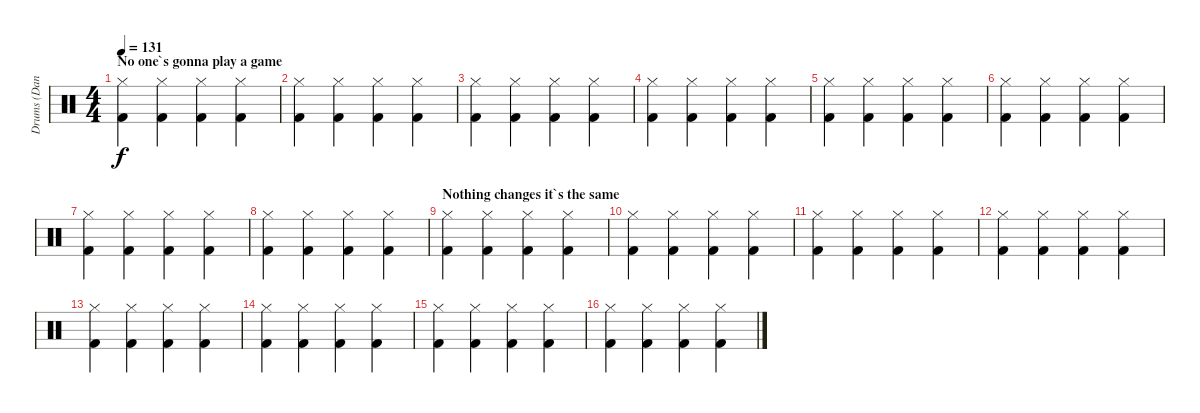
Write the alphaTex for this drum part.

\track ("Drums (Danny Young)" "Drums (Dan") {instrument percussion}
\staff {score}
\articulation defaults
\ts (4 4)
\section ("" "No one`s gonna play a game")
\tempo 131
\clef neutral
\ks c
("Hi-Hat (closed)" "Kick (hit) 2").4{dy f} ("Hi-Hat (closed)" "Kick (hit) 2").4 ("Hi-Hat (closed)" "Kick (hit) 2").4 ("Hi-Hat (closed)" "Kick (hit) 2").4 |
("Hi-Hat (closed)" "Kick (hit) 2").4 ("Hi-Hat (closed)" "Kick (hit) 2").4 ("Hi-Hat (closed)" "Kick (hit) 2").4 ("Hi-Hat (closed)" "Kick (hit) 2").4 |
("Hi-Hat (closed)" "Kick (hit) 2").4 ("Hi-Hat (closed)" "Kick (hit) 2").4 ("Hi-Hat (closed)" "Kick (hit) 2").4 ("Hi-Hat (closed)" "Kick (hit) 2").4 |
("Hi-Hat (closed)" "Kick (hit) 2").4 ("Hi-Hat (closed)" "Kick (hit) 2").4 ("Hi-Hat (closed)" "Kick (hit) 2").4 ("Hi-Hat (closed)" "Kick (hit) 2").4 |
("Hi-Hat (closed)" "Kick (hit) 2").4 ("Hi-Hat (closed)" "Kick (hit) 2").4 ("Hi-Hat (closed)" "Kick (hit) 2").4 ("Hi-Hat (closed)" "Kick (hit) 2").4 |
("Hi-Hat (closed)" "Kick (hit) 2").4 ("Hi-Hat (closed)" "Kick (hit) 2").4 ("Hi-Hat (closed)" "Kick (hit) 2").4 ("Hi-Hat (closed)" "Kick (hit) 2").4 |
("Hi-Hat (closed)" "Kick (hit) 2").4 ("Hi-Hat (closed)" "Kick (hit) 2").4 ("Hi-Hat (closed)" "Kick (hit) 2").4 ("Hi-Hat (closed)" "Kick (hit) 2").4 |
("Hi-Hat (closed)" "Kick (hit) 2").4 ("Hi-Hat (closed)" "Kick (hit) 2").4 ("Hi-Hat (closed)" "Kick (hit) 2").4 ("Hi-Hat (closed)" "Kick (hit) 2").4 |
\section ("" "Nothing changes it`s the same")
("Hi-Hat (closed)" "Kick (hit) 2").4 ("Hi-Hat (closed)" "Kick (hit) 2").4 ("Hi-Hat (closed)" "Kick (hit) 2").4 ("Hi-Hat (closed)" "Kick (hit) 2").4 |
("Hi-Hat (closed)" "Kick (hit) 2").4 ("Hi-Hat (closed)" "Kick (hit) 2").4 ("Hi-Hat (closed)" "Kick (hit) 2").4 ("Hi-Hat (closed)" "Kick (hit) 2").4 |
("Hi-Hat (closed)" "Kick (hit) 2").4 ("Hi-Hat (closed)" "Kick (hit) 2").4 ("Hi-Hat (closed)" "Kick (hit) 2").4 ("Hi-Hat (closed)" "Kick (hit) 2").4 |
("Hi-Hat (closed)" "Kick (hit) 2").4 ("Hi-Hat (closed)" "Kick (hit) 2").4 ("Hi-Hat (closed)" "Kick (hit) 2").4 ("Hi-Hat (closed)" "Kick (hit) 2").4 |
("Hi-Hat (closed)" "Kick (hit) 2").4 ("Hi-Hat (closed)" "Kick (hit) 2").4 ("Hi-Hat (closed)" "Kick (hit) 2").4 ("Hi-Hat (closed)" "Kick (hit) 2").4 |
("Hi-Hat (closed)" "Kick (hit) 2").4 ("Hi-Hat (closed)" "Kick (hit) 2").4 ("Hi-Hat (closed)" "Kick (hit) 2").4 ("Hi-Hat (closed)" "Kick (hit) 2").4 |
("Hi-Hat (closed)" "Kick (hit) 2").4 ("Hi-Hat (closed)" "Kick (hit) 2").4 ("Hi-Hat (closed)" "Kick (hit) 2").4 ("Hi-Hat (closed)" "Kick (hit) 2").4 |
("Hi-Hat (closed)" "Kick (hit) 2").4 ("Hi-Hat (closed)" "Kick (hit) 2").4 ("Hi-Hat (closed)" "Kick (hit) 2").4 ("Hi-Hat (closed)" "Kick (hit) 2").4
